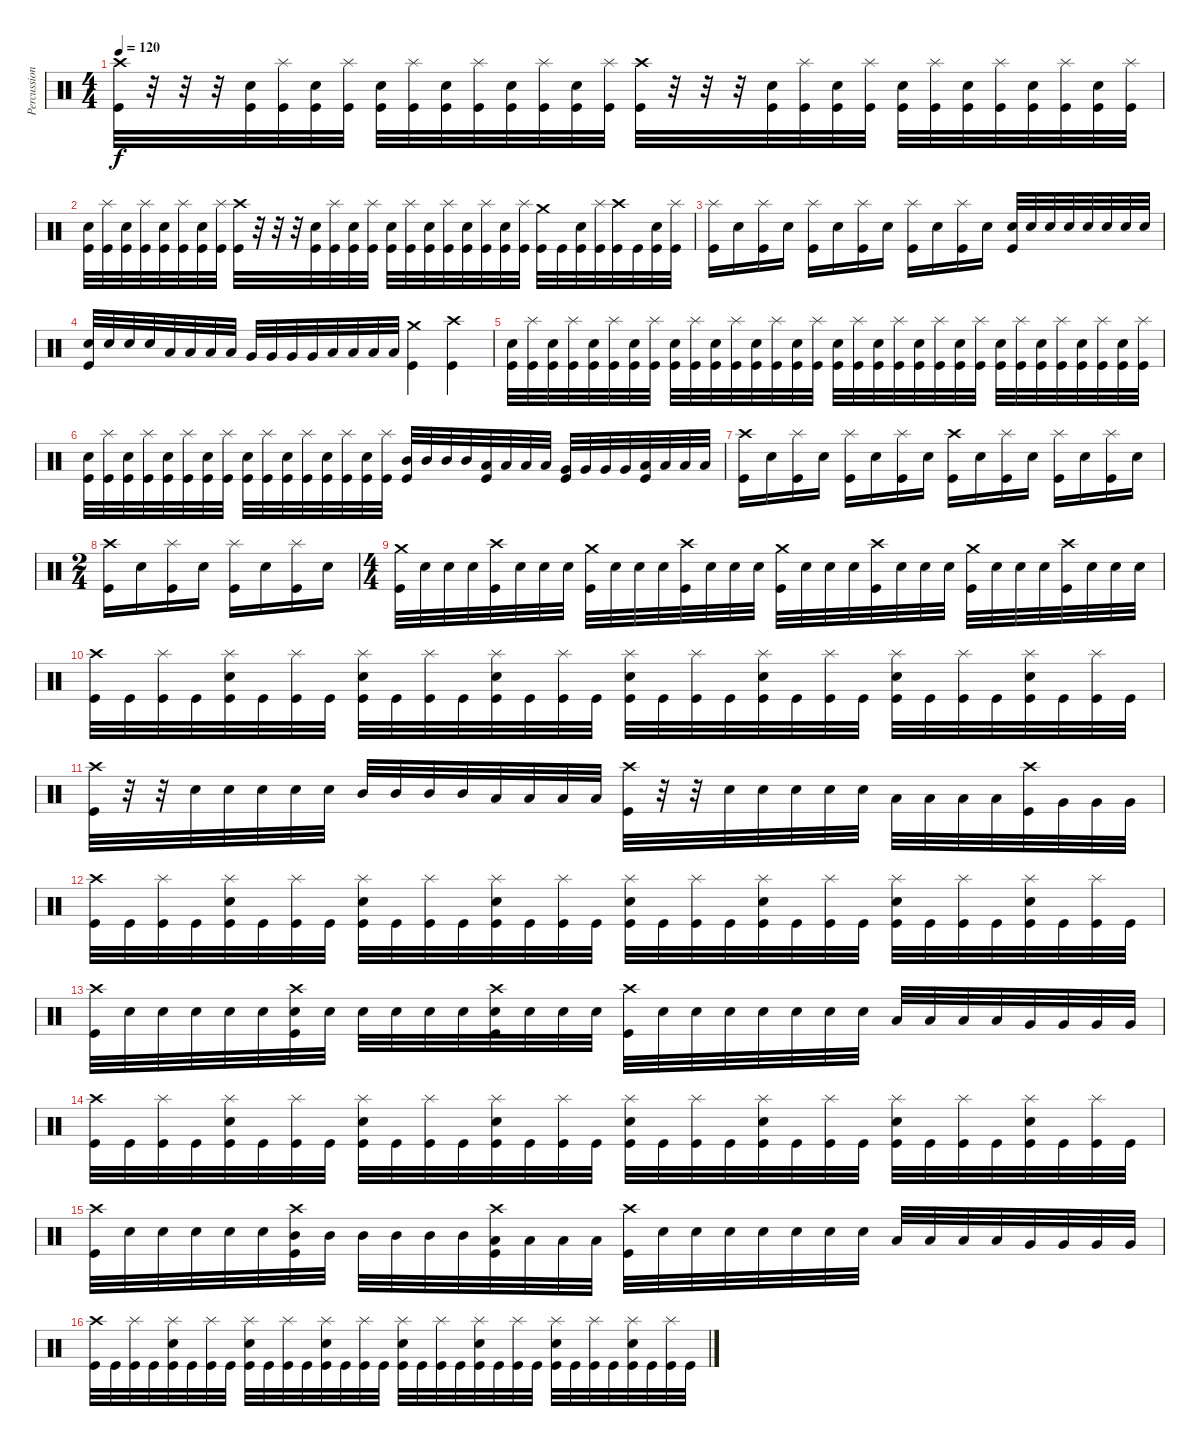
\track ("Percussion" "Percussion") {instrument percussion}
\staff {score}
\articulation defaults
\ts (4 4)
\tempo 120
\clef neutral
\ks c
("Crash high (hit)" "Kick (hit)").32{dy f} r.32 r.32 r.32 ("Electric Snare (hit)" "Kick (hit)").32 ("Splash (hit)" "Kick (hit)").32 ("Electric Snare (hit)" "Kick (hit)").32 ("Splash (hit)" "Kick (hit)").32 ("Electric Snare (hit)" "Kick (hit)").32 ("Splash (hit)" "Kick (hit)").32 ("Electric Snare (hit)" "Kick (hit)").32 ("Splash (hit)" "Kick (hit)").32 ("Electric Snare (hit)" "Kick (hit)").32 ("Splash (hit)" "Kick (hit)").32 ("Electric Snare (hit)" "Kick (hit)").32 ("Splash (hit)" "Kick (hit)").32 ("Crash high (hit)" "Kick (hit)").32 r.32 r.32 r.32 ("Electric Snare (hit)" "Kick (hit)").32 ("Splash (hit)" "Kick (hit)").32 ("Electric Snare (hit)" "Kick (hit)").32 ("Splash (hit)" "Kick (hit)").32 ("Electric Snare (hit)" "Kick (hit)").32 ("Splash (hit)" "Kick (hit)").32 ("Electric Snare (hit)" "Kick (hit)").32 ("Splash (hit)" "Kick (hit)").32 ("Electric Snare (hit)" "Kick (hit)").32 ("Splash (hit)" "Kick (hit)").32 ("Electric Snare (hit)" "Kick (hit)").32 ("Splash (hit)" "Kick (hit)").32 |
("Electric Snare (hit)" "Kick (hit)").32 ("Splash (hit)" "Kick (hit)").32 ("Electric Snare (hit)" "Kick (hit)").32 ("Splash (hit)" "Kick (hit)").32 ("Electric Snare (hit)" "Kick (hit)").32 ("Splash (hit)" "Kick (hit)").32 ("Electric Snare (hit)" "Kick (hit)").32 ("Splash (hit)" "Kick (hit)").32 ("Crash high (hit)" "Kick (hit)").32 r.32 r.32 r.32 ("Electric Snare (hit)" "Kick (hit)").32 ("Splash (hit)" "Kick (hit)").32 ("Electric Snare (hit)" "Kick (hit)").32 ("Splash (hit)" "Kick (hit)").32 ("Electric Snare (hit)" "Kick (hit)").32 ("Splash (hit)" "Kick (hit)").32 ("Electric Snare (hit)" "Kick (hit)").32 ("Splash (hit)" "Kick (hit)").32 ("Electric Snare (hit)" "Kick (hit)").32 ("Splash (hit)" "Kick (hit)").32 ("Electric Snare (hit)" "Kick (hit)").32 ("Splash (hit)" "Kick (hit)").32 ("Crash medium (hit)" "Kick (hit)").32 "Kick (hit)".32 ("Electric Snare (hit)" "Kick (hit)").32 ("Splash (hit)" "Kick (hit)").32 ("Crash high (hit)" "Kick (hit)").32 "Kick (hit)".32 ("Electric Snare (hit)" "Kick (hit)").32 ("Splash (hit)" "Kick (hit)").32 |
("Splash (hit)" "Kick (hit)").16 "Electric Snare (hit)".16 ("Splash (hit)" "Kick (hit)").16 "Electric Snare (hit)".16 ("Splash (hit)" "Kick (hit)").16 "Electric Snare (hit)".16 ("Splash (hit)" "Kick (hit)").16 "Electric Snare (hit)".16 ("Splash (hit)" "Kick (hit)").16 "Electric Snare (hit)".16 ("Splash (hit)" "Kick (hit)").16 "Electric Snare (hit)".16 ("Electric Snare (hit)" "Kick (hit)").32 "Electric Snare (hit)".32 "Electric Snare (hit)".32 "Electric Snare (hit)".32 "Electric Snare (hit)".32 "Electric Snare (hit)".32 "Electric Snare (hit)".32 "Electric Snare (hit)".32 |
("Electric Snare (hit)" "Kick (hit)").32 "Electric Snare (hit)".32 "Electric Snare (hit)".32 "Electric Snare (hit)".32 "Low Tom (hit)".32 "Low Tom (hit)".32 "Low Tom (hit)".32 "Low Tom (hit)".32 "Very Low Tom (hit)".32 "Very Low Tom (hit)".32 "Very Low Tom (hit)".32 "Very Low Tom (hit)".32 "Low Floor Tom (hit)".32 "Low Floor Tom (hit)".32 "Low Floor Tom (hit)".32 "Low Floor Tom (hit)".32 ("Crash medium (hit)" "Kick (hit)").4 ("Crash high (hit)" "Kick (hit)").4 |
("Electric Snare (hit)" "Kick (hit)").32 ("Splash (hit)" "Kick (hit)").32 ("Electric Snare (hit)" "Kick (hit)").32 ("Splash (hit)" "Kick (hit)").32 ("Electric Snare (hit)" "Kick (hit)").32 ("Splash (hit)" "Kick (hit)").32 ("Electric Snare (hit)" "Kick (hit)").32 ("Splash (hit)" "Kick (hit)").32 ("Electric Snare (hit)" "Kick (hit)").32 ("Splash (hit)" "Kick (hit)").32 ("Electric Snare (hit)" "Kick (hit)").32 ("Splash (hit)" "Kick (hit)").32 ("Electric Snare (hit)" "Kick (hit)").32 ("Splash (hit)" "Kick (hit)").32 ("Electric Snare (hit)" "Kick (hit)").32 ("Splash (hit)" "Kick (hit)").32 ("Electric Snare (hit)" "Kick (hit)").32 ("Splash (hit)" "Kick (hit)").32 ("Electric Snare (hit)" "Kick (hit)").32 ("Splash (hit)" "Kick (hit)").32 ("Electric Snare (hit)" "Kick (hit)").32 ("Splash (hit)" "Kick (hit)").32 ("Electric Snare (hit)" "Kick (hit)").32 ("Splash (hit)" "Kick (hit)").32 ("Electric Snare (hit)" "Kick (hit)").32 ("Splash (hit)" "Kick (hit)").32 ("Electric Snare (hit)" "Kick (hit)").32 ("Splash (hit)" "Kick (hit)").32 ("Electric Snare (hit)" "Kick (hit)").32 ("Splash (hit)" "Kick (hit)").32 ("Electric Snare (hit)" "Kick (hit)").32 ("Splash (hit)" "Kick (hit)").32 |
("Electric Snare (hit)" "Kick (hit)").32 ("Splash (hit)" "Kick (hit)").32 ("Electric Snare (hit)" "Kick (hit)").32 ("Splash (hit)" "Kick (hit)").32 ("Electric Snare (hit)" "Kick (hit)").32 ("Splash (hit)" "Kick (hit)").32 ("Electric Snare (hit)" "Kick (hit)").32 ("Splash (hit)" "Kick (hit)").32 ("Electric Snare (hit)" "Kick (hit)").32 ("Splash (hit)" "Kick (hit)").32 ("Electric Snare (hit)" "Kick (hit)").32 ("Splash (hit)" "Kick (hit)").32 ("Electric Snare (hit)" "Kick (hit)").32 ("Splash (hit)" "Kick (hit)").32 ("Electric Snare (hit)" "Kick (hit)").32 ("Splash (hit)" "Kick (hit)").32 ("Mid Tom (hit)" "Kick (hit)").32 "Mid Tom (hit)".32 "Mid Tom (hit)".32 "Mid Tom (hit)".32 ("Low Tom (hit)" "Kick (hit)").32 "Low Tom (hit)".32 "Low Tom (hit)".32 "Low Tom (hit)".32 ("Very Low Tom (hit)" "Kick (hit)").32 "Very Low Tom (hit)".32 "Very Low Tom (hit)".32 "Very Low Tom (hit)".32 ("Low Floor Tom (hit)" "Kick (hit)").32 "Low Floor Tom (hit)".32 "Low Floor Tom (hit)".32 "Low Floor Tom (hit)".32 |
("Crash high (hit)" "Kick (hit)").16 "Electric Snare (hit)".16 ("Splash (hit)" "Kick (hit)").16 "Electric Snare (hit)".16 ("Splash (hit)" "Kick (hit)").16 "Electric Snare (hit)".16 ("Splash (hit)" "Kick (hit)").16 "Electric Snare (hit)".16 ("Crash high (hit)" "Kick (hit)").16 "Electric Snare (hit)".16 ("Splash (hit)" "Kick (hit)").16 "Electric Snare (hit)".16 ("Splash (hit)" "Kick (hit)").16 "Electric Snare (hit)".16 ("Splash (hit)" "Kick (hit)").16 "Electric Snare (hit)".16 |
\ts (2 4)
("Crash high (hit)" "Kick (hit)").16 "Electric Snare (hit)".16 ("Splash (hit)" "Kick (hit)").16 "Electric Snare (hit)".16 ("Splash (hit)" "Kick (hit)").16 "Electric Snare (hit)".16 ("Splash (hit)" "Kick (hit)").16 "Electric Snare (hit)".16 |
\ts (4 4)
("Crash medium (hit)" "Kick (hit)").32 "Electric Snare (hit)".32 "Electric Snare (hit)".32 "Electric Snare (hit)".32 ("Crash high (hit)" "Kick (hit)").32 "Electric Snare (hit)".32 "Electric Snare (hit)".32 "Electric Snare (hit)".32 ("Crash medium (hit)" "Kick (hit)").32 "Electric Snare (hit)".32 "Electric Snare (hit)".32 "Electric Snare (hit)".32 ("Crash high (hit)" "Kick (hit)").32 "Electric Snare (hit)".32 "Electric Snare (hit)".32 "Electric Snare (hit)".32 ("Crash medium (hit)" "Kick (hit)").32 "Electric Snare (hit)".32 "Electric Snare (hit)".32 "Electric Snare (hit)".32 ("Crash high (hit)" "Kick (hit)").32 "Electric Snare (hit)".32 "Electric Snare (hit)".32 "Electric Snare (hit)".32 ("Crash medium (hit)" "Kick (hit)").32 "Electric Snare (hit)".32 "Electric Snare (hit)".32 "Electric Snare (hit)".32 ("Crash high (hit)" "Kick (hit)").32 "Electric Snare (hit)".32 "Electric Snare (hit)".32 "Electric Snare (hit)".32 |
("Crash high (hit)" "Kick (hit)").32 "Kick (hit)".32 ("Splash (hit)" "Kick (hit)").32 "Kick (hit)".32 ("Splash (hit)" "Electric Snare (hit)" "Kick (hit)").32 "Kick (hit)".32 ("Splash (hit)" "Kick (hit)").32 "Kick (hit)".32 ("Splash (hit)" "Electric Snare (hit)" "Kick (hit)").32 "Kick (hit)".32 ("Splash (hit)" "Kick (hit)").32 "Kick (hit)".32 ("Splash (hit)" "Electric Snare (hit)" "Kick (hit)").32 "Kick (hit)".32 ("Splash (hit)" "Kick (hit)").32 "Kick (hit)".32 ("Splash (hit)" "Electric Snare (hit)" "Kick (hit)").32 "Kick (hit)".32 ("Splash (hit)" "Kick (hit)").32 "Kick (hit)".32 ("Splash (hit)" "Electric Snare (hit)" "Kick (hit)").32 "Kick (hit)".32 ("Splash (hit)" "Kick (hit)").32 "Kick (hit)".32 ("Splash (hit)" "Electric Snare (hit)" "Kick (hit)").32 "Kick (hit)".32 ("Splash (hit)" "Kick (hit)").32 "Kick (hit)".32 ("Splash (hit)" "Electric Snare (hit)" "Kick (hit)").32 "Kick (hit)".32 ("Splash (hit)" "Kick (hit)").32 "Kick (hit)".32 |
("Crash high (hit)" "Kick (hit)").32 r.32 r.32 "Electric Snare (hit)".32 "Electric Snare (hit)".32 "Electric Snare (hit)".32 "Electric Snare (hit)".32 "Electric Snare (hit)".32 "Mid Tom (hit)".32 "Mid Tom (hit)".32 "Mid Tom (hit)".32 "Mid Tom (hit)".32 "Low Tom (hit)".32 "Low Tom (hit)".32 "Low Tom (hit)".32 "Low Tom (hit)".32 ("Crash high (hit)" "Kick (hit)").32 r.32 r.32 "Electric Snare (hit)".32 "Electric Snare (hit)".32 "Electric Snare (hit)".32 "Electric Snare (hit)".32 "Electric Snare (hit)".32 "Low Tom (hit)".32 "Low Tom (hit)".32 "Low Tom (hit)".32 "Low Tom (hit)".32 ("Crash high (hit)" "Kick (hit)").32 "Very Low Tom (hit)".32 "Very Low Tom (hit)".32 "Very Low Tom (hit)".32 |
("Crash high (hit)" "Kick (hit)").32 "Kick (hit)".32 ("Splash (hit)" "Kick (hit)").32 "Kick (hit)".32 ("Splash (hit)" "Electric Snare (hit)" "Kick (hit)").32 "Kick (hit)".32 ("Splash (hit)" "Kick (hit)").32 "Kick (hit)".32 ("Splash (hit)" "Electric Snare (hit)" "Kick (hit)").32 "Kick (hit)".32 ("Splash (hit)" "Kick (hit)").32 "Kick (hit)".32 ("Splash (hit)" "Electric Snare (hit)" "Kick (hit)").32 "Kick (hit)".32 ("Splash (hit)" "Kick (hit)").32 "Kick (hit)".32 ("Splash (hit)" "Electric Snare (hit)" "Kick (hit)").32 "Kick (hit)".32 ("Splash (hit)" "Kick (hit)").32 "Kick (hit)".32 ("Splash (hit)" "Electric Snare (hit)" "Kick (hit)").32 "Kick (hit)".32 ("Splash (hit)" "Kick (hit)").32 "Kick (hit)".32 ("Splash (hit)" "Electric Snare (hit)" "Kick (hit)").32 "Kick (hit)".32 ("Splash (hit)" "Kick (hit)").32 "Kick (hit)".32 ("Splash (hit)" "Electric Snare (hit)" "Kick (hit)").32 "Kick (hit)".32 ("Splash (hit)" "Kick (hit)").32 "Kick (hit)".32 |
("Crash high (hit)" "Kick (hit)").32 "Electric Snare (hit)".32 "Electric Snare (hit)".32 "Electric Snare (hit)".32 "Electric Snare (hit)".32 "Electric Snare (hit)".32 ("Crash high (hit)" "Electric Snare (hit)" "Kick (hit)").32 "Electric Snare (hit)".32 "Electric Snare (hit)".32 "Electric Snare (hit)".32 "Electric Snare (hit)".32 "Electric Snare (hit)".32 ("Crash high (hit)" "Electric Snare (hit)" "Kick (hit)").32 "Electric Snare (hit)".32 "Electric Snare (hit)".32 "Electric Snare (hit)".32 ("Crash high (hit)" "Kick (hit)").32 "Electric Snare (hit)".32 "Electric Snare (hit)".32 "Electric Snare (hit)".32 "Electric Snare (hit)".32 "Electric Snare (hit)".32 "Electric Snare (hit)".32 "Electric Snare (hit)".32 "Low Tom (hit)".32 "Low Tom (hit)".32 "Low Tom (hit)".32 "Low Tom (hit)".32 "Very Low Tom (hit)".32 "Very Low Tom (hit)".32 "Very Low Tom (hit)".32 "Very Low Tom (hit)".32 |
("Crash high (hit)" "Kick (hit)").32 "Kick (hit)".32 ("Splash (hit)" "Kick (hit)").32 "Kick (hit)".32 ("Splash (hit)" "Electric Snare (hit)" "Kick (hit)").32 "Kick (hit)".32 ("Splash (hit)" "Kick (hit)").32 "Kick (hit)".32 ("Splash (hit)" "Electric Snare (hit)" "Kick (hit)").32 "Kick (hit)".32 ("Splash (hit)" "Kick (hit)").32 "Kick (hit)".32 ("Splash (hit)" "Electric Snare (hit)" "Kick (hit)").32 "Kick (hit)".32 ("Splash (hit)" "Kick (hit)").32 "Kick (hit)".32 ("Splash (hit)" "Electric Snare (hit)" "Kick (hit)").32 "Kick (hit)".32 ("Splash (hit)" "Kick (hit)").32 "Kick (hit)".32 ("Splash (hit)" "Electric Snare (hit)" "Kick (hit)").32 "Kick (hit)".32 ("Splash (hit)" "Kick (hit)").32 "Kick (hit)".32 ("Splash (hit)" "Electric Snare (hit)" "Kick (hit)").32 "Kick (hit)".32 ("Splash (hit)" "Kick (hit)").32 "Kick (hit)".32 ("Splash (hit)" "Electric Snare (hit)" "Kick (hit)").32 "Kick (hit)".32 ("Splash (hit)" "Kick (hit)").32 "Kick (hit)".32 |
("Crash high (hit)" "Kick (hit)").32 "Electric Snare (hit)".32 "Electric Snare (hit)".32 "Electric Snare (hit)".32 "Electric Snare (hit)".32 "Electric Snare (hit)".32 ("Crash high (hit)" "Mid Tom (hit)" "Kick (hit)").32 "Mid Tom (hit)".32 "Mid Tom (hit)".32 "Mid Tom (hit)".32 "Mid Tom (hit)".32 "Mid Tom (hit)".32 ("Crash high (hit)" "Low Tom (hit)" "Kick (hit)").32 "Low Tom (hit)".32 "Low Tom (hit)".32 "Low Tom (hit)".32 ("Crash high (hit)" "Kick (hit)").32 "Electric Snare (hit)".32 "Electric Snare (hit)".32 "Electric Snare (hit)".32 "Electric Snare (hit)".32 "Electric Snare (hit)".32 "Electric Snare (hit)".32 "Electric Snare (hit)".32 "Low Tom (hit)".32 "Low Tom (hit)".32 "Low Tom (hit)".32 "Low Tom (hit)".32 "Very Low Tom (hit)".32 "Very Low Tom (hit)".32 "Very Low Tom (hit)".32 "Very Low Tom (hit)".32 |
("Crash high (hit)" "Kick (hit)").32 "Kick (hit)".32 ("Splash (hit)" "Kick (hit)").32 "Kick (hit)".32 ("Splash (hit)" "Electric Snare (hit)" "Kick (hit)").32 "Kick (hit)".32 ("Splash (hit)" "Kick (hit)").32 "Kick (hit)".32 ("Splash (hit)" "Electric Snare (hit)" "Kick (hit)").32 "Kick (hit)".32 ("Splash (hit)" "Kick (hit)").32 "Kick (hit)".32 ("Splash (hit)" "Electric Snare (hit)" "Kick (hit)").32 "Kick (hit)".32 ("Splash (hit)" "Kick (hit)").32 "Kick (hit)".32 ("Splash (hit)" "Electric Snare (hit)" "Kick (hit)").32 "Kick (hit)".32 ("Splash (hit)" "Kick (hit)").32 "Kick (hit)".32 ("Splash (hit)" "Electric Snare (hit)" "Kick (hit)").32 "Kick (hit)".32 ("Splash (hit)" "Kick (hit)").32 "Kick (hit)".32 ("Splash (hit)" "Electric Snare (hit)" "Kick (hit)").32 "Kick (hit)".32 ("Splash (hit)" "Kick (hit)").32 "Kick (hit)".32 ("Splash (hit)" "Electric Snare (hit)" "Kick (hit)").32 "Kick (hit)".32 ("Splash (hit)" "Kick (hit)").32 "Kick (hit)".32
